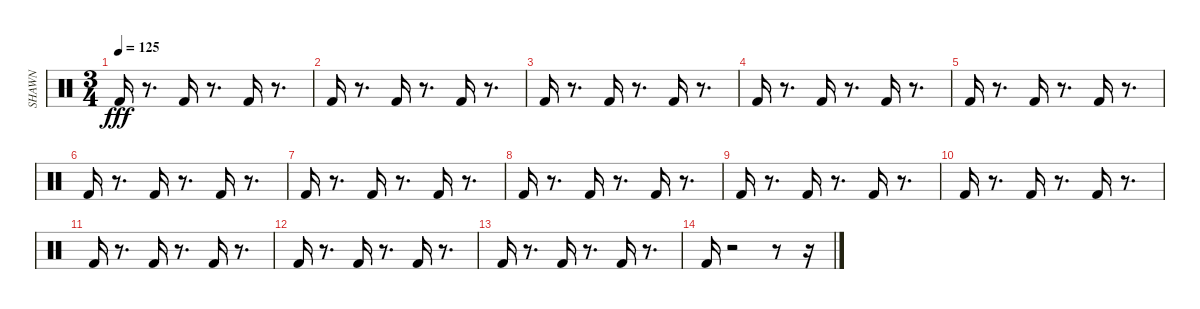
\track ("SHAWN" "SHAWN") {instrument percussion}
\staff {score}
\articulation defaults
\ts (3 4)
\tempo 125
\clef neutral
\ks c "Kick (hit) 2".16{dy fff}
r.8{d} "Kick (hit) 2".16 r.8{d} "Kick (hit) 2".16 r.8{d} |
"Kick (hit) 2".16 r.8{d} "Kick (hit) 2".16 r.8{d} "Kick (hit) 2".16 r.8{d} |
"Kick (hit) 2".16 r.8{d} "Kick (hit) 2".16 r.8{d} "Kick (hit) 2".16 r.8{d} |
"Kick (hit) 2".16 r.8{d} "Kick (hit) 2".16 r.8{d} "Kick (hit) 2".16 r.8{d} |
"Kick (hit) 2".16 r.8{d} "Kick (hit) 2".16 r.8{d} "Kick (hit) 2".16 r.8{d} |
"Kick (hit) 2".16 r.8{d} "Kick (hit) 2".16 r.8{d} "Kick (hit) 2".16 r.8{d} |
"Kick (hit) 2".16 r.8{d} "Kick (hit) 2".16 r.8{d} "Kick (hit) 2".16 r.8{d} |
"Kick (hit) 2".16 r.8{d} "Kick (hit) 2".16 r.8{d} "Kick (hit) 2".16 r.8{d} |
"Kick (hit) 2".16 r.8{d} "Kick (hit) 2".16 r.8{d} "Kick (hit) 2".16 r.8{d} |
"Kick (hit) 2".16 r.8{d} "Kick (hit) 2".16 r.8{d} "Kick (hit) 2".16 r.8{d} |
"Kick (hit) 2".16 r.8{d} "Kick (hit) 2".16 r.8{d} "Kick (hit) 2".16 r.8{d} |
"Kick (hit) 2".16 r.8{d} "Kick (hit) 2".16 r.8{d} "Kick (hit) 2".16 r.8{d} |
"Kick (hit) 2".16 r.8{d} "Kick (hit) 2".16 r.8{d} "Kick (hit) 2".16 r.8{d} |
"Kick (hit) 2".16 r.2 r.8 r.16
